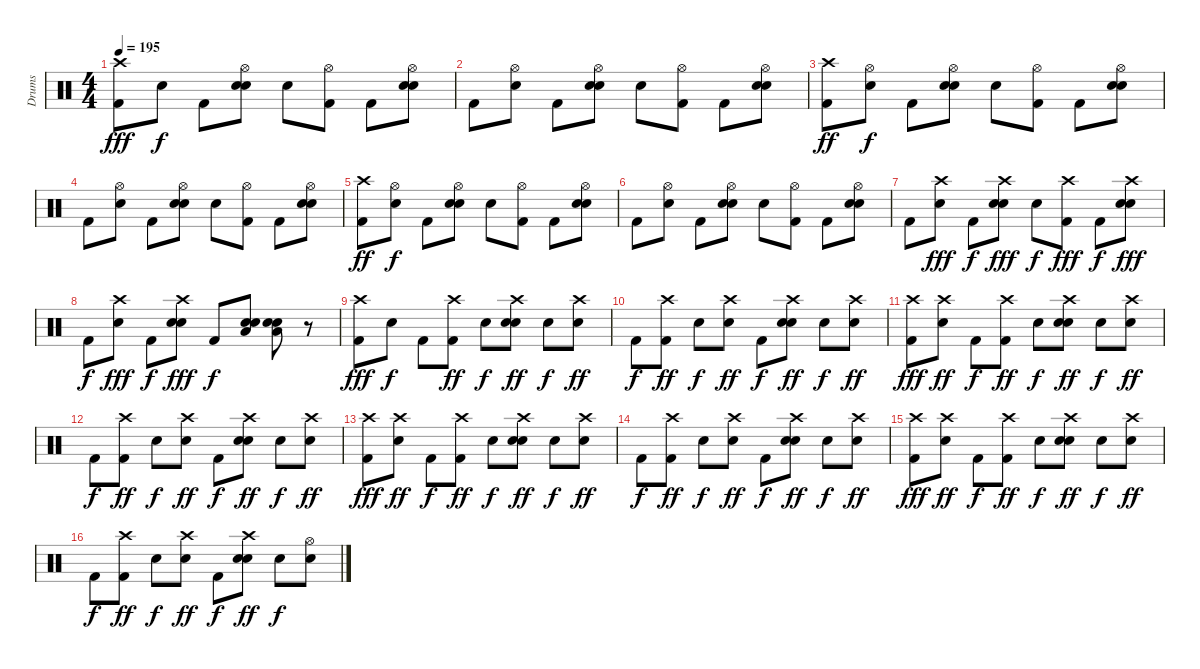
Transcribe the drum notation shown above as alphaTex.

\track ("Drums" "Drums") {instrument percussion}
\staff {score}
\articulation defaults
\ts (4 4)
\tempo 195
\clef neutral
\ks c
("Crash high (hit)" "Kick (hit) 2").8{dy fff} "Snare (hit)".8{dy f} "Kick (hit) 2".8 ("Hi-Hat (open)" "Snare (hit) 2" "Snare (hit)").8 "Snare (hit)".8 ("Hi-Hat (open)" "Kick (hit) 2").8 "Kick (hit) 2".8 ("Hi-Hat (open)" "Snare (hit) 2" "Snare (hit)").8 |
"Kick (hit) 2".8 ("Hi-Hat (open)" "Snare (hit)").8 "Kick (hit) 2".8 ("Hi-Hat (open)" "Snare (hit) 2" "Snare (hit)").8 "Snare (hit)".8 ("Hi-Hat (open)" "Kick (hit) 2").8 "Kick (hit) 2".8 ("Hi-Hat (open)" "Snare (hit) 2" "Snare (hit)").8 |
("Crash high (hit)" "Kick (hit) 2").8{dy ff} ("Hi-Hat (open)" "Snare (hit)").8{dy f} "Kick (hit) 2".8 ("Hi-Hat (open)" "Snare (hit) 2" "Snare (hit)").8 "Snare (hit)".8 ("Hi-Hat (open)" "Kick (hit) 2").8 "Kick (hit) 2".8 ("Hi-Hat (open)" "Snare (hit) 2" "Snare (hit)").8 |
"Kick (hit) 2".8 ("Hi-Hat (open)" "Snare (hit)").8 "Kick (hit) 2".8 ("Hi-Hat (open)" "Snare (hit) 2" "Snare (hit)").8 "Snare (hit)".8 ("Hi-Hat (open)" "Kick (hit) 2").8 "Kick (hit) 2".8 ("Hi-Hat (open)" "Snare (hit) 2" "Snare (hit)").8 |
("Crash high (hit)" "Kick (hit) 2").8{dy ff} ("Hi-Hat (open)" "Snare (hit)").8{dy f} "Kick (hit) 2".8 ("Hi-Hat (open)" "Snare (hit) 2" "Snare (hit)").8 "Snare (hit)".8 ("Hi-Hat (open)" "Kick (hit) 2").8 "Kick (hit) 2".8 ("Hi-Hat (open)" "Snare (hit) 2" "Snare (hit)").8 |
"Kick (hit) 2".8 ("Hi-Hat (open)" "Snare (hit)").8 "Kick (hit) 2".8 ("Hi-Hat (open)" "Snare (hit) 2" "Snare (hit)").8 "Snare (hit)".8 ("Hi-Hat (open)" "Kick (hit) 2").8 "Kick (hit) 2".8 ("Hi-Hat (open)" "Snare (hit) 2" "Snare (hit)").8 |
"Kick (hit) 2".8 ("Crash high (hit)" "Snare (hit)").8{dy fff} "Kick (hit) 2".8{dy f} ("Crash high (hit)" "Snare (hit) 2" "Snare (hit)").8{dy fff} "Snare (hit)".8{dy f} ("Crash high (hit)" "Kick (hit) 2").8{dy fff} "Kick (hit) 2".8{dy f} ("Crash high (hit)" "Snare (hit) 2" "Snare (hit)").8{dy fff} |
"Kick (hit) 2".8{dy f} ("Crash high (hit)" "Snare (hit)").8{dy fff} "Kick (hit) 2".8{dy f} ("Crash high (hit)" "Snare (hit) 2" "Snare (hit)").8{dy fff} "Kick (hit) 2".8{dy f} ("Low Floor Tom (hit)" "Snare (hit) 2" "Snare (hit)").8 ("Low Floor Tom (hit)" "Snare (hit) 2" "Snare (hit)").8 r.8 |
("Crash high (hit)" "Kick (hit) 2").8{dy fff} "Snare (hit)".8{dy f} "Kick (hit) 2".8 ("Crash high (hit)" "Kick (hit) 2").8{dy ff} "Snare (hit)".8{dy f} ("Crash high (hit)" "Snare (hit) 2" "Snare (hit)").8{dy ff} "Snare (hit)".8{dy f} ("Crash high (hit)" "Snare (hit)").8{dy ff} |
"Kick (hit) 2".8{dy f} ("Crash high (hit)" "Kick (hit) 2").8{dy ff} "Snare (hit)".8{dy f} ("Crash high (hit)" "Snare (hit)").8{dy ff} "Kick (hit) 2".8{dy f} ("Crash high (hit)" "Snare (hit) 2" "Snare (hit)").8{dy ff} "Snare (hit)".8{dy f} ("Crash high (hit)" "Snare (hit)").8{dy ff} |
("Crash high (hit)" "Kick (hit) 2").8{dy fff} ("Crash high (hit)" "Snare (hit)").8{dy ff} "Kick (hit) 2".8{dy f} ("Crash high (hit)" "Kick (hit) 2").8{dy ff} "Snare (hit)".8{dy f} ("Crash high (hit)" "Snare (hit) 2" "Snare (hit)").8{dy ff} "Snare (hit)".8{dy f} ("Crash high (hit)" "Snare (hit)").8{dy ff} |
"Kick (hit) 2".8{dy f} ("Crash high (hit)" "Kick (hit) 2").8{dy ff} "Snare (hit)".8{dy f} ("Crash high (hit)" "Snare (hit)").8{dy ff} "Kick (hit) 2".8{dy f} ("Crash high (hit)" "Snare (hit) 2" "Snare (hit)").8{dy ff} "Snare (hit)".8{dy f} ("Crash high (hit)" "Snare (hit)").8{dy ff} |
("Crash high (hit)" "Kick (hit) 2").8{dy fff} ("Crash high (hit)" "Snare (hit)").8{dy ff} "Kick (hit) 2".8{dy f} ("Crash high (hit)" "Kick (hit) 2").8{dy ff} "Snare (hit)".8{dy f} ("Crash high (hit)" "Snare (hit) 2" "Snare (hit)").8{dy ff} "Snare (hit)".8{dy f} ("Crash high (hit)" "Snare (hit)").8{dy ff} |
"Kick (hit) 2".8{dy f} ("Crash high (hit)" "Kick (hit) 2").8{dy ff} "Snare (hit)".8{dy f} ("Crash high (hit)" "Snare (hit)").8{dy ff} "Kick (hit) 2".8{dy f} ("Crash high (hit)" "Snare (hit) 2" "Snare (hit)").8{dy ff} "Snare (hit)".8{dy f} ("Crash high (hit)" "Snare (hit)").8{dy ff} |
("Crash high (hit)" "Kick (hit) 2").8{dy fff} ("Crash high (hit)" "Snare (hit)").8{dy ff} "Kick (hit) 2".8{dy f} ("Crash high (hit)" "Kick (hit) 2").8{dy ff} "Snare (hit)".8{dy f} ("Crash high (hit)" "Snare (hit) 2" "Snare (hit)").8{dy ff} "Snare (hit)".8{dy f} ("Crash high (hit)" "Snare (hit)").8{dy ff} |
"Kick (hit) 2".8{dy f} ("Crash high (hit)" "Kick (hit) 2").8{dy ff} "Snare (hit)".8{dy f} ("Crash high (hit)" "Snare (hit)").8{dy ff} "Kick (hit) 2".8{dy f} ("Crash high (hit)" "Snare (hit) 2" "Snare (hit)").8{dy ff} "Snare (hit)".8{dy f} ("Hi-Hat (open)" "Snare (hit)").8
